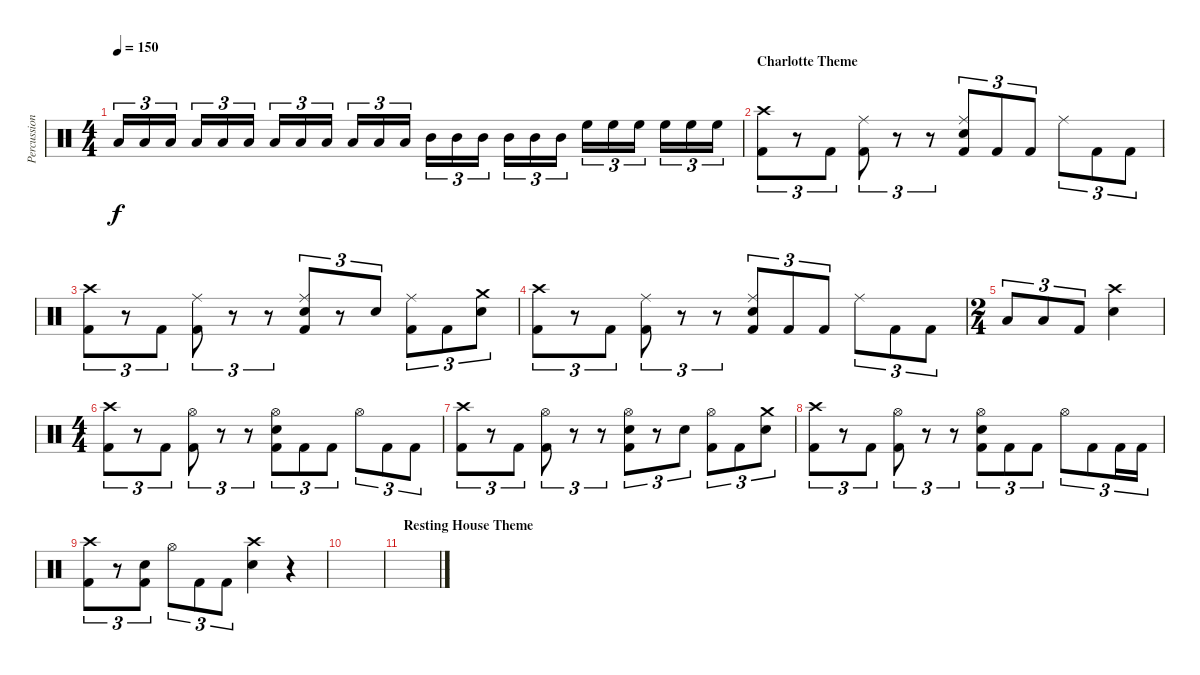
\track ("Percussion" "Percussion") {instrument percussion}
\staff {score}
\articulation defaults
\ts (4 4)
\tempo 150
\clef neutral
\ks c "Low Floor Tom (hit)".16{tu (3 2) dy f} "Low Floor Tom (hit)".16{tu (3 2)} "Low Floor Tom (hit)".16{tu (3 2)} "Low Floor Tom (hit)".16{tu (3 2)} "Low Floor Tom (hit)".16{tu (3 2)} "Low Floor Tom (hit)".16{tu (3 2)} "Low Tom (hit)".16{tu (3 2)} "Low Tom (hit)".16{tu (3 2)} "Low Tom (hit)".16{tu (3 2)} "Low Tom (hit)".16{tu (3 2)} "Low Tom (hit)".16{tu (3 2)} "Low Tom (hit)".16{tu (3 2)} "Mid Tom (hit)".16{tu (3 2)} "Mid Tom (hit)".16{tu (3 2)} "Mid Tom (hit)".16{tu (3 2)} "Mid Tom (hit)".16{tu (3 2)} "Mid Tom (hit)".16{tu (3 2)} "Mid Tom (hit)".16{tu (3 2)} "High Floor Tom (hit)".16{tu (3 2)} "High Floor Tom (hit)".16{tu (3 2)} "High Floor Tom (hit)".16{tu (3 2)} "High Floor Tom (hit)".16{tu (3 2)} "High Floor Tom (hit)".16{tu (3 2)} "High Floor Tom (hit)".16{tu (3 2)}
|
\section ("" "Charlotte Theme")
("Crash high (hit)" "Kick (hit) 2").8{tu (3 2)} r.8{tu (3 2)} "Kick (hit) 2".8{tu (3 2)} ("Ride (middle)" "Kick (hit) 2").8{tu (3 2)} r.8{tu (3 2)} r.8{tu (3 2)} ("Ride (middle)" "Electric Snare (hit)" "Kick (hit) 2").8{tu (3 2)} "Kick (hit) 2".8{tu (3 2)} "Kick (hit) 2".8{tu (3 2)} "Ride (middle)".8{tu (3 2)} "Kick (hit) 2".8{tu (3 2)} "Kick (hit) 2".8{tu (3 2)} |
("Crash high (hit)" "Kick (hit) 2").8{tu (3 2)} r.8{tu (3 2)} "Kick (hit) 2".8{tu (3 2)} ("Ride (middle)" "Kick (hit) 2").8{tu (3 2)} r.8{tu (3 2)} r.8{tu (3 2)} ("Ride (middle)" "Electric Snare (hit)" "Kick (hit) 2").8{tu (3 2)} r.8{tu (3 2)} "Electric Snare (hit)".8{tu (3 2)} ("Ride (middle)" "Kick (hit) 2").8{tu (3 2)} "Kick (hit) 2".8{tu (3 2)} ("Crash medium (hit)" "Electric Snare (hit)").8{tu (3 2)} |
("Crash high (hit)" "Kick (hit) 2").8{tu (3 2)} r.8{tu (3 2)} "Kick (hit) 2".8{tu (3 2)} ("Ride (middle)" "Kick (hit) 2").8{tu (3 2)} r.8{tu (3 2)} r.8{tu (3 2)} ("Ride (middle)" "Electric Snare (hit)" "Kick (hit) 2").8{tu (3 2)} "Kick (hit) 2".8{tu (3 2)} "Kick (hit) 2".8{tu (3 2)} "Ride (middle)".8{tu (3 2)} "Kick (hit) 2".8{tu (3 2)} "Kick (hit) 2".8{tu (3 2)} |
\ts (2 4)
"Low Tom (hit)".8{tu (3 2)} "Low Floor Tom (hit)".8{tu (3 2)} "Kick (hit) 2".8{tu (3 2)} ("Crash high (hit)" "Electric Snare (hit)").4 |
\ts (4 4)
("Crash high (hit)" "Kick (hit) 2").8{tu (3 2)} r.8{tu (3 2)} "Kick (hit) 2".8{tu (3 2)} ("Hi-Hat (open)" "Kick (hit) 2").8{tu (3 2)} r.8{tu (3 2)} r.8{tu (3 2)} ("Hi-Hat (open)" "Electric Snare (hit)" "Kick (hit) 2").8{tu (3 2)} "Kick (hit) 2".8{tu (3 2)} "Kick (hit) 2".8{tu (3 2)} "Hi-Hat (open)".8{tu (3 2)} "Kick (hit) 2".8{tu (3 2)} "Kick (hit) 2".8{tu (3 2)} |
("Crash high (hit)" "Kick (hit) 2").8{tu (3 2)} r.8{tu (3 2)} "Kick (hit) 2".8{tu (3 2)} ("Hi-Hat (open)" "Kick (hit) 2").8{tu (3 2)} r.8{tu (3 2)} r.8{tu (3 2)} ("Hi-Hat (open)" "Electric Snare (hit)" "Kick (hit) 2").8{tu (3 2)} r.8{tu (3 2)} "Electric Snare (hit)".8{tu (3 2)} ("Hi-Hat (open)" "Kick (hit) 2").8{tu (3 2)} "Kick (hit) 2".8{tu (3 2)} ("Crash medium (hit)" "Electric Snare (hit)").8{tu (3 2)} |
("Crash high (hit)" "Kick (hit) 2").8{tu (3 2)} r.8{tu (3 2)} "Kick (hit) 2".8{tu (3 2)} ("Hi-Hat (open)" "Kick (hit) 2").8{tu (3 2)} r.8{tu (3 2)} r.8{tu (3 2)} ("Hi-Hat (open)" "Electric Snare (hit)" "Kick (hit) 2").8{tu (3 2)} "Kick (hit) 2".8{tu (3 2)} "Kick (hit) 2".8{tu (3 2)} "Hi-Hat (open)".8{tu (3 2)} "Kick (hit) 2".8{tu (3 2)} "Kick (hit) 2".16{tu (3 2)} "Kick (hit) 2".16{tu (3 2)} |
("Crash high (hit)" "Kick (hit) 2").8{tu (3 2)} r.8{tu (3 2)} ("Electric Snare (hit)" "Kick (hit) 2").8{tu (3 2)} "Hi-Hat (open)".8{tu (3 2)} "Kick (hit) 2".8{tu (3 2)} "Kick (hit) 2".8{tu (3 2)} ("Crash high (hit)" "Electric Snare (hit)").4 r.4 |
|
\section ("" "Resting House Theme")
